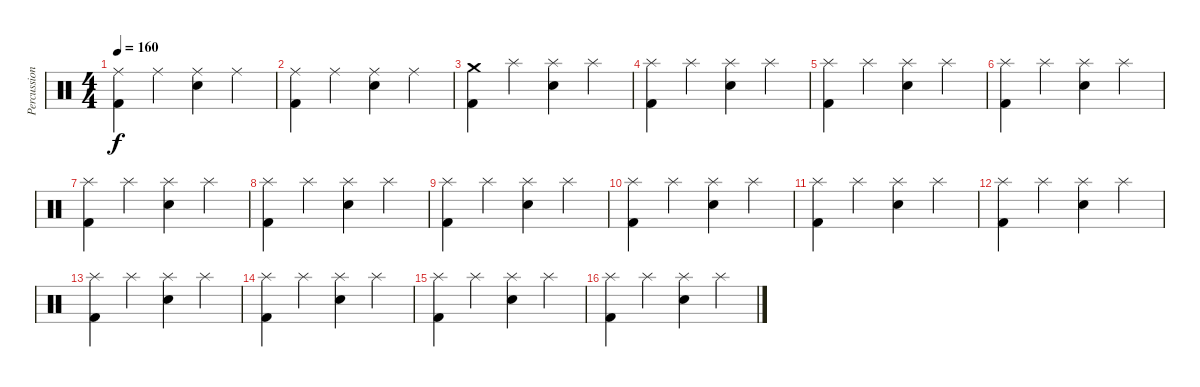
\track ("Percussion" "Percussion") {instrument percussion}
\staff {score}
\articulation defaults
\ts (4 4)
\tempo 160
\clef neutral
\ks c
("Ride (middle)" "Kick (hit) 2").4{dy f} "Ride (middle)".4 ("Ride (middle)" "Electric Snare (hit)").4 "Ride (middle)".4 |
("Ride (middle)" "Kick (hit) 2").4 "Ride (middle)".4 ("Ride (middle)" "Electric Snare (hit)").4 "Ride (middle)".4 |
("Crash medium (hit)" "Kick (hit) 2").4 "Splash (hit)".4 ("Splash (hit)" "Electric Snare (hit)").4 "Splash (hit)".4 |
("Splash (hit)" "Kick (hit) 2").4 "Splash (hit)".4 ("Splash (hit)" "Electric Snare (hit)").4 "Splash (hit)".4 |
("Splash (hit)" "Kick (hit) 2").4 "Splash (hit)".4 ("Splash (hit)" "Electric Snare (hit)").4 "Splash (hit)".4 |
("Splash (hit)" "Kick (hit) 2").4 "Splash (hit)".4 ("Splash (hit)" "Electric Snare (hit)").4 "Splash (hit)".4 |
("Splash (hit)" "Kick (hit) 2").4 "Splash (hit)".4 ("Splash (hit)" "Electric Snare (hit)").4 "Splash (hit)".4 |
("Splash (hit)" "Kick (hit) 2").4 "Splash (hit)".4 ("Splash (hit)" "Electric Snare (hit)").4 "Splash (hit)".4 |
("Splash (hit)" "Kick (hit) 2").4 "Splash (hit)".4 ("Splash (hit)" "Electric Snare (hit)").4 "Splash (hit)".4 |
("Splash (hit)" "Kick (hit) 2").4 "Splash (hit)".4 ("Splash (hit)" "Electric Snare (hit)").4 "Splash (hit)".4 |
("Splash (hit)" "Kick (hit) 2").4 "Splash (hit)".4 ("Splash (hit)" "Electric Snare (hit)").4 "Splash (hit)".4 |
("Splash (hit)" "Kick (hit) 2").4 "Splash (hit)".4 ("Splash (hit)" "Electric Snare (hit)").4 "Splash (hit)".4 |
("Splash (hit)" "Kick (hit) 2").4 "Splash (hit)".4 ("Splash (hit)" "Electric Snare (hit)").4 "Splash (hit)".4 |
("Splash (hit)" "Kick (hit) 2").4 "Splash (hit)".4 ("Splash (hit)" "Electric Snare (hit)").4 "Splash (hit)".4 |
("Splash (hit)" "Kick (hit) 2").4 "Splash (hit)".4 ("Splash (hit)" "Electric Snare (hit)").4 "Splash (hit)".4 |
("Splash (hit)" "Kick (hit) 2").4 "Splash (hit)".4 ("Splash (hit)" "Electric Snare (hit)").4 "Splash (hit)".4
